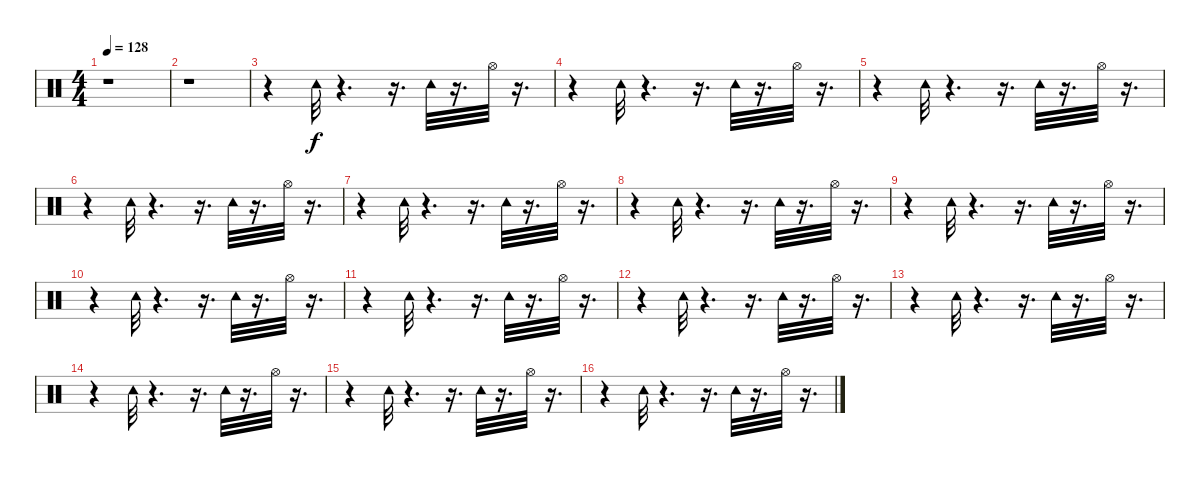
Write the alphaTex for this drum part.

\track "" {instrument percussion}
\staff {score}
\articulation defaults
\ts (4 4)
\tempo 128
\clef neutral
\ks c
r.1{dy f} |
r.1 |
r.4 "Tambourine (hit)".32 r.4{d} r.16{d} "Tambourine (hit)".32 r.16{d} "Hi-Hat (open)".32 r.16{d} |
r.4 "Tambourine (hit)".32 r.4{d} r.16{d} "Tambourine (hit)".32 r.16{d} "Hi-Hat (open)".32 r.16{d} |
r.4 "Tambourine (hit)".32 r.4{d} r.16{d} "Tambourine (hit)".32 r.16{d} "Hi-Hat (open)".32 r.16{d} |
r.4 "Tambourine (hit)".32 r.4{d} r.16{d} "Tambourine (hit)".32 r.16{d} "Hi-Hat (open)".32 r.16{d} |
r.4 "Tambourine (hit)".32 r.4{d} r.16{d} "Tambourine (hit)".32 r.16{d} "Hi-Hat (open)".32 r.16{d} |
r.4 "Tambourine (hit)".32 r.4{d} r.16{d} "Tambourine (hit)".32 r.16{d} "Hi-Hat (open)".32 r.16{d} |
r.4 "Tambourine (hit)".32 r.4{d} r.16{d} "Tambourine (hit)".32 r.16{d} "Hi-Hat (open)".32 r.16{d} |
r.4 "Tambourine (hit)".32 r.4{d} r.16{d} "Tambourine (hit)".32 r.16{d} "Hi-Hat (open)".32 r.16{d} |
r.4 "Tambourine (hit)".32 r.4{d} r.16{d} "Tambourine (hit)".32 r.16{d} "Hi-Hat (open)".32 r.16{d} |
r.4 "Tambourine (hit)".32 r.4{d} r.16{d} "Tambourine (hit)".32 r.16{d} "Hi-Hat (open)".32 r.16{d} |
r.4 "Tambourine (hit)".32 r.4{d} r.16{d} "Tambourine (hit)".32 r.16{d} "Hi-Hat (open)".32 r.16{d} |
r.4 "Tambourine (hit)".32 r.4{d} r.16{d} "Tambourine (hit)".32 r.16{d} "Hi-Hat (open)".32 r.16{d} |
r.4 "Tambourine (hit)".32 r.4{d} r.16{d} "Tambourine (hit)".32 r.16{d} "Hi-Hat (open)".32 r.16{d} |
r.4 "Tambourine (hit)".32 r.4{d} r.16{d} "Tambourine (hit)".32 r.16{d} "Hi-Hat (open)".32 r.16{d}
